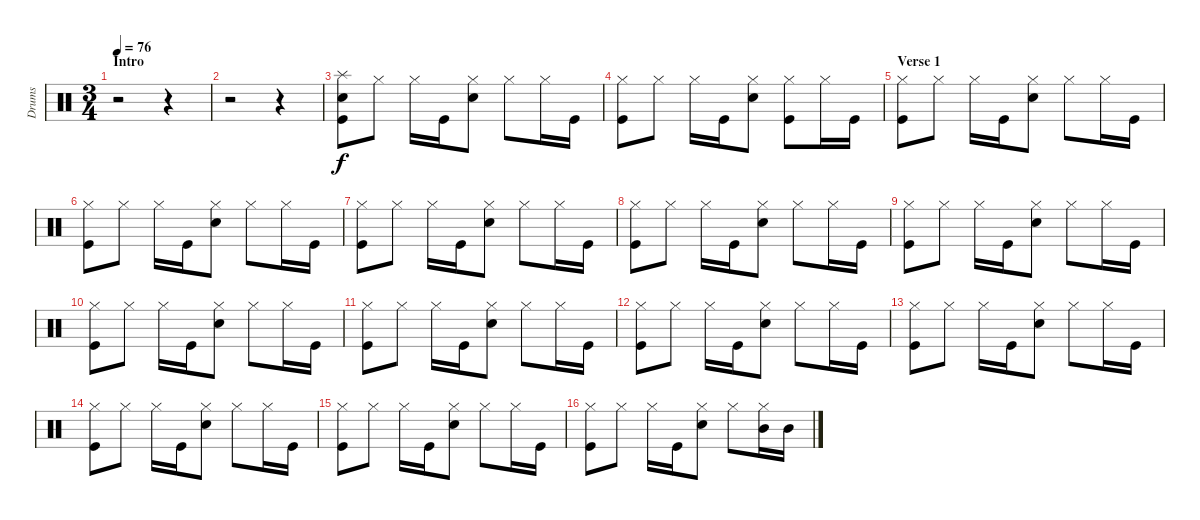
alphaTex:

\track ("Drums" "Drums") {instrument percussion}
\staff {score}
\articulation defaults
\ts (3 4)
\section ("" "Intro")
\tempo 76
\clef neutral
\ks c
r.2{dy f} r.4 |
r.2 r.4 |
("Splash (hit)" "Snare (hit) 2" "Kick (hit)").8 "Hi-Hat (closed)".8 "Hi-Hat (closed)".16 "Kick (hit)".16 ("Hi-Hat (closed)" "Snare (hit) 2").8 "Hi-Hat (closed)".8 "Hi-Hat (closed)".16 "Kick (hit)".16 |
("Hi-Hat (closed)" "Kick (hit)").8 "Hi-Hat (closed)".8 "Hi-Hat (closed)".16 "Kick (hit)".16 ("Hi-Hat (closed)" "Snare (hit) 2").8 ("Hi-Hat (closed)" "Kick (hit)").8 "Hi-Hat (closed)".16 "Kick (hit)".16 |
\section ("" "Verse 1")
("Hi-Hat (closed)" "Kick (hit)").8 "Hi-Hat (closed)".8 "Hi-Hat (closed)".16 "Kick (hit)".16 ("Hi-Hat (closed)" "Snare (hit) 2").8 "Hi-Hat (closed)".8 "Hi-Hat (closed)".16 "Kick (hit)".16 |
("Hi-Hat (closed)" "Kick (hit)").8 "Hi-Hat (closed)".8 "Hi-Hat (closed)".16 "Kick (hit)".16 ("Hi-Hat (closed)" "Snare (hit) 2").8 "Hi-Hat (closed)".8 "Hi-Hat (closed)".16 "Kick (hit)".16 |
("Hi-Hat (closed)" "Kick (hit)").8 "Hi-Hat (closed)".8 "Hi-Hat (closed)".16 "Kick (hit)".16 ("Hi-Hat (closed)" "Snare (hit) 2").8 "Hi-Hat (closed)".8 "Hi-Hat (closed)".16 "Kick (hit)".16 |
("Hi-Hat (closed)" "Kick (hit)").8 "Hi-Hat (closed)".8 "Hi-Hat (closed)".16 "Kick (hit)".16 ("Hi-Hat (closed)" "Snare (hit) 2").8 "Hi-Hat (closed)".8 "Hi-Hat (closed)".16 "Kick (hit)".16 |
("Hi-Hat (closed)" "Kick (hit)").8 "Hi-Hat (closed)".8 "Hi-Hat (closed)".16 "Kick (hit)".16 ("Hi-Hat (closed)" "Snare (hit) 2").8 "Hi-Hat (closed)".8 "Hi-Hat (closed)".16 "Kick (hit)".16 |
("Hi-Hat (closed)" "Kick (hit)").8 "Hi-Hat (closed)".8 "Hi-Hat (closed)".16 "Kick (hit)".16 ("Hi-Hat (closed)" "Snare (hit) 2").8 "Hi-Hat (closed)".8 "Hi-Hat (closed)".16 "Kick (hit)".16 |
("Hi-Hat (closed)" "Kick (hit)").8 "Hi-Hat (closed)".8 "Hi-Hat (closed)".16 "Kick (hit)".16 ("Hi-Hat (closed)" "Snare (hit) 2").8 "Hi-Hat (closed)".8 "Hi-Hat (closed)".16 "Kick (hit)".16 |
("Hi-Hat (closed)" "Kick (hit)").8 "Hi-Hat (closed)".8 "Hi-Hat (closed)".16 "Kick (hit)".16 ("Hi-Hat (closed)" "Snare (hit) 2").8 "Hi-Hat (closed)".8 "Hi-Hat (closed)".16 "Kick (hit)".16 |
("Hi-Hat (closed)" "Kick (hit)").8 "Hi-Hat (closed)".8 "Hi-Hat (closed)".16 "Kick (hit)".16 ("Hi-Hat (closed)" "Snare (hit) 2").8 "Hi-Hat (closed)".8 "Hi-Hat (closed)".16 "Kick (hit)".16 |
("Hi-Hat (closed)" "Kick (hit)").8 "Hi-Hat (closed)".8 "Hi-Hat (closed)".16 "Kick (hit)".16 ("Hi-Hat (closed)" "Snare (hit) 2").8 "Hi-Hat (closed)".8 "Hi-Hat (closed)".16 "Kick (hit)".16 |
("Hi-Hat (closed)" "Kick (hit)").8 "Hi-Hat (closed)".8 "Hi-Hat (closed)".16 "Kick (hit)".16 ("Hi-Hat (closed)" "Snare (hit) 2").8 "Hi-Hat (closed)".8 "Hi-Hat (closed)".16 "Kick (hit)".16 |
("Hi-Hat (closed)" "Kick (hit)").8 "Hi-Hat (closed)".8 "Hi-Hat (closed)".16 "Kick (hit)".16 ("Hi-Hat (closed)" "Snare (hit) 2").8 "Hi-Hat (closed)".8 ("Hi-Hat (closed)" "Mid Tom (hit)").16 "Mid Tom (hit)".16
